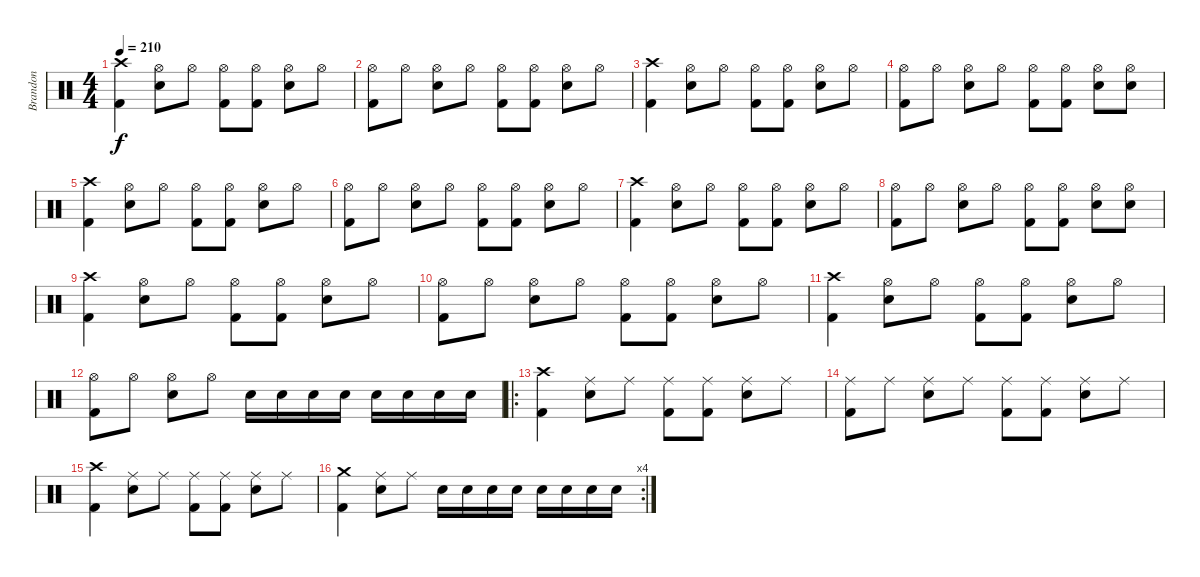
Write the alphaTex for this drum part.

\track ("Brandon" "Brandon") {instrument percussion}
\staff {score}
\articulation defaults
\ts (4 4)
\tempo 210
\clef neutral
\ks c
("Crash high (hit)" "Kick (hit) 2").4{dy f} ("Snare (hit) 2" "Hi-Hat (open)").8 "Hi-Hat (open)".8 ("Kick (hit) 2" "Hi-Hat (open)").8 ("Kick (hit) 2" "Hi-Hat (open)").8 ("Snare (hit) 2" "Hi-Hat (open)").8 "Hi-Hat (open)".8 |
("Hi-Hat (open)" "Kick (hit) 2").8 "Hi-Hat (open)".8 ("Snare (hit) 2" "Hi-Hat (open)").8 "Hi-Hat (open)".8 ("Kick (hit) 2" "Hi-Hat (open)").8 ("Kick (hit) 2" "Hi-Hat (open)").8 ("Snare (hit) 2" "Hi-Hat (open)").8 "Hi-Hat (open)".8 |
("Crash high (hit)" "Kick (hit) 2").4 ("Snare (hit) 2" "Hi-Hat (open)").8 "Hi-Hat (open)".8 ("Kick (hit) 2" "Hi-Hat (open)").8 ("Kick (hit) 2" "Hi-Hat (open)").8 ("Snare (hit) 2" "Hi-Hat (open)").8 "Hi-Hat (open)".8 |
("Hi-Hat (open)" "Kick (hit) 2").8 "Hi-Hat (open)".8 ("Snare (hit) 2" "Hi-Hat (open)").8 "Hi-Hat (open)".8 ("Kick (hit) 2" "Hi-Hat (open)").8 ("Kick (hit) 2" "Hi-Hat (open)").8 ("Snare (hit) 2" "Hi-Hat (open)").8 ("Hi-Hat (open)" "Snare (hit) 2").8 |
("Crash high (hit)" "Kick (hit) 2").4 ("Snare (hit) 2" "Hi-Hat (open)").8 "Hi-Hat (open)".8 ("Kick (hit) 2" "Hi-Hat (open)").8 ("Kick (hit) 2" "Hi-Hat (open)").8 ("Snare (hit) 2" "Hi-Hat (open)").8 "Hi-Hat (open)".8 |
("Hi-Hat (open)" "Kick (hit) 2").8 "Hi-Hat (open)".8 ("Snare (hit) 2" "Hi-Hat (open)").8 "Hi-Hat (open)".8 ("Kick (hit) 2" "Hi-Hat (open)").8 ("Kick (hit) 2" "Hi-Hat (open)").8 ("Snare (hit) 2" "Hi-Hat (open)").8 "Hi-Hat (open)".8 |
("Crash high (hit)" "Kick (hit) 2").4 ("Snare (hit) 2" "Hi-Hat (open)").8 "Hi-Hat (open)".8 ("Kick (hit) 2" "Hi-Hat (open)").8 ("Kick (hit) 2" "Hi-Hat (open)").8 ("Snare (hit) 2" "Hi-Hat (open)").8 "Hi-Hat (open)".8 |
("Hi-Hat (open)" "Kick (hit) 2").8 "Hi-Hat (open)".8 ("Snare (hit) 2" "Hi-Hat (open)").8 "Hi-Hat (open)".8 ("Kick (hit) 2" "Hi-Hat (open)").8 ("Kick (hit) 2" "Hi-Hat (open)").8 ("Snare (hit) 2" "Hi-Hat (open)").8 ("Hi-Hat (open)" "Snare (hit) 2").8 |
("Crash high (hit)" "Kick (hit) 2").4 ("Snare (hit) 2" "Hi-Hat (open)").8 "Hi-Hat (open)".8 ("Kick (hit) 2" "Hi-Hat (open)").8 ("Kick (hit) 2" "Hi-Hat (open)").8 ("Snare (hit) 2" "Hi-Hat (open)").8 "Hi-Hat (open)".8 |
("Hi-Hat (open)" "Kick (hit) 2").8 "Hi-Hat (open)".8 ("Snare (hit) 2" "Hi-Hat (open)").8 "Hi-Hat (open)".8 ("Kick (hit) 2" "Hi-Hat (open)").8 ("Kick (hit) 2" "Hi-Hat (open)").8 ("Snare (hit) 2" "Hi-Hat (open)").8 "Hi-Hat (open)".8 |
("Crash high (hit)" "Kick (hit) 2").4 ("Snare (hit) 2" "Hi-Hat (open)").8 "Hi-Hat (open)".8 ("Kick (hit) 2" "Hi-Hat (open)").8 ("Kick (hit) 2" "Hi-Hat (open)").8 ("Snare (hit) 2" "Hi-Hat (open)").8 "Hi-Hat (open)".8 |
("Hi-Hat (open)" "Kick (hit) 2").8 "Hi-Hat (open)".8 ("Snare (hit) 2" "Hi-Hat (open)").8 "Hi-Hat (open)".8 "Snare (hit) 2".16 "Snare (hit) 2".16 "Snare (hit) 2".16 "Snare (hit) 2".16 "Snare (hit) 2".16 "Snare (hit) 2".16 "Snare (hit) 2".16 "Snare (hit) 2".16 |
\ro
("Kick (hit) 2" "Crash high (hit)").4 ("Snare (hit) 2" "Ride (middle)").8 "Ride (middle)".8 ("Kick (hit) 2" "Ride (middle)").8 ("Kick (hit) 2" "Ride (middle)").8 ("Snare (hit) 2" "Ride (middle)").8 "Ride (middle)".8 |
("Ride (middle)" "Kick (hit) 2").8 "Ride (middle)".8 ("Snare (hit) 2" "Ride (middle)").8 "Ride (middle)".8 ("Kick (hit) 2" "Ride (middle)").8 ("Kick (hit) 2" "Ride (middle)").8 ("Snare (hit) 2" "Ride (middle)").8 "Ride (middle)".8 |
("Kick (hit) 2" "Crash high (hit)").4 ("Snare (hit) 2" "Ride (middle)").8 "Ride (middle)".8 ("Kick (hit) 2" "Ride (middle)").8 ("Kick (hit) 2" "Ride (middle)").8 ("Snare (hit) 2" "Ride (middle)").8 "Ride (middle)".8 |
\rc 4
("Kick (hit) 2" "Crash medium (hit)").4 ("Snare (hit) 2" "Ride (middle)").8 "Ride (middle)".8 "Snare (hit) 2".16 "Snare (hit) 2".16 "Snare (hit) 2".16 "Snare (hit) 2".16 "Snare (hit) 2".16 "Snare (hit) 2".16 "Snare (hit) 2".16 "Snare (hit) 2".16
